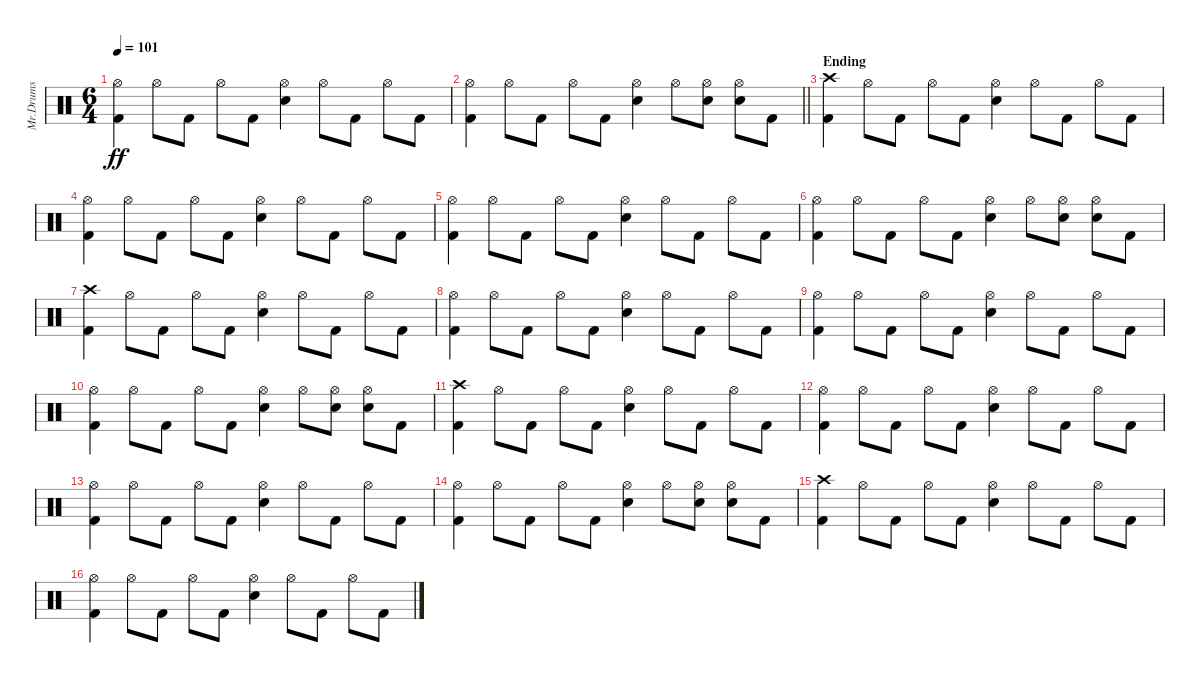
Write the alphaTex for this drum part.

\track ("Mr.Drums" "Mr.Drums") {instrument percussion}
\staff {score}
\articulation defaults
\ts (6 4)
\tempo 101
\clef neutral
\ks c
("Hi-Hat (open)" "Kick (hit) 2").4{dy ff} "Hi-Hat (open)".8 "Kick (hit) 2".8 "Hi-Hat (open)".8 "Kick (hit) 2".8 ("Hi-Hat (open)" "Electric Snare (hit)").4 "Hi-Hat (open)".8 "Kick (hit) 2".8 "Hi-Hat (open)".8 "Kick (hit) 2".8 |
\barLineRight lightlight
("Hi-Hat (open)" "Kick (hit) 2").4 "Hi-Hat (open)".8 "Kick (hit) 2".8 "Hi-Hat (open)".8 "Kick (hit) 2".8 ("Hi-Hat (open)" "Electric Snare (hit)").4 "Hi-Hat (open)".8 ("Hi-Hat (open)" "Electric Snare (hit)").8 ("Hi-Hat (open)" "Electric Snare (hit)").8 "Kick (hit) 2".8 |
\section ("" "Ending")
("Crash high (hit)" "Kick (hit) 2").4 "Hi-Hat (open)".8 "Kick (hit) 2".8 "Hi-Hat (open)".8 "Kick (hit) 2".8 ("Hi-Hat (open)" "Electric Snare (hit)").4 "Hi-Hat (open)".8 "Kick (hit) 2".8 "Hi-Hat (open)".8 "Kick (hit) 2".8 |
("Hi-Hat (open)" "Kick (hit) 2").4 "Hi-Hat (open)".8 "Kick (hit) 2".8 "Hi-Hat (open)".8 "Kick (hit) 2".8 ("Hi-Hat (open)" "Electric Snare (hit)").4 "Hi-Hat (open)".8 "Kick (hit) 2".8 "Hi-Hat (open)".8 "Kick (hit) 2".8 |
("Hi-Hat (open)" "Kick (hit) 2").4 "Hi-Hat (open)".8 "Kick (hit) 2".8 "Hi-Hat (open)".8 "Kick (hit) 2".8 ("Hi-Hat (open)" "Electric Snare (hit)").4 "Hi-Hat (open)".8 "Kick (hit) 2".8 "Hi-Hat (open)".8 "Kick (hit) 2".8 |
("Hi-Hat (open)" "Kick (hit) 2").4 "Hi-Hat (open)".8 "Kick (hit) 2".8 "Hi-Hat (open)".8 "Kick (hit) 2".8 ("Hi-Hat (open)" "Electric Snare (hit)").4 "Hi-Hat (open)".8 ("Hi-Hat (open)" "Electric Snare (hit)").8 ("Hi-Hat (open)" "Electric Snare (hit)").8 "Kick (hit) 2".8 |
("Crash high (hit)" "Kick (hit) 2").4 "Hi-Hat (open)".8 "Kick (hit) 2".8 "Hi-Hat (open)".8 "Kick (hit) 2".8 ("Hi-Hat (open)" "Electric Snare (hit)").4 "Hi-Hat (open)".8 "Kick (hit) 2".8 "Hi-Hat (open)".8 "Kick (hit) 2".8 |
("Hi-Hat (open)" "Kick (hit) 2").4 "Hi-Hat (open)".8 "Kick (hit) 2".8 "Hi-Hat (open)".8 "Kick (hit) 2".8 ("Hi-Hat (open)" "Electric Snare (hit)").4 "Hi-Hat (open)".8 "Kick (hit) 2".8 "Hi-Hat (open)".8 "Kick (hit) 2".8 |
("Hi-Hat (open)" "Kick (hit) 2").4 "Hi-Hat (open)".8 "Kick (hit) 2".8 "Hi-Hat (open)".8 "Kick (hit) 2".8 ("Hi-Hat (open)" "Electric Snare (hit)").4 "Hi-Hat (open)".8 "Kick (hit) 2".8 "Hi-Hat (open)".8 "Kick (hit) 2".8 |
("Hi-Hat (open)" "Kick (hit) 2").4 "Hi-Hat (open)".8 "Kick (hit) 2".8 "Hi-Hat (open)".8 "Kick (hit) 2".8 ("Hi-Hat (open)" "Electric Snare (hit)").4 "Hi-Hat (open)".8 ("Hi-Hat (open)" "Electric Snare (hit)").8 ("Hi-Hat (open)" "Electric Snare (hit)").8 "Kick (hit) 2".8 |
("Crash high (hit)" "Kick (hit) 2").4 "Hi-Hat (open)".8 "Kick (hit) 2".8 "Hi-Hat (open)".8 "Kick (hit) 2".8 ("Hi-Hat (open)" "Electric Snare (hit)").4 "Hi-Hat (open)".8 "Kick (hit) 2".8 "Hi-Hat (open)".8 "Kick (hit) 2".8 |
("Hi-Hat (open)" "Kick (hit) 2").4 "Hi-Hat (open)".8 "Kick (hit) 2".8 "Hi-Hat (open)".8 "Kick (hit) 2".8 ("Hi-Hat (open)" "Electric Snare (hit)").4 "Hi-Hat (open)".8 "Kick (hit) 2".8 "Hi-Hat (open)".8 "Kick (hit) 2".8 |
("Hi-Hat (open)" "Kick (hit) 2").4 "Hi-Hat (open)".8 "Kick (hit) 2".8 "Hi-Hat (open)".8 "Kick (hit) 2".8 ("Hi-Hat (open)" "Electric Snare (hit)").4 "Hi-Hat (open)".8 "Kick (hit) 2".8 "Hi-Hat (open)".8 "Kick (hit) 2".8 |
("Hi-Hat (open)" "Kick (hit) 2").4 "Hi-Hat (open)".8 "Kick (hit) 2".8 "Hi-Hat (open)".8 "Kick (hit) 2".8 ("Hi-Hat (open)" "Electric Snare (hit)").4 "Hi-Hat (open)".8 ("Hi-Hat (open)" "Electric Snare (hit)").8 ("Hi-Hat (open)" "Electric Snare (hit)").8 "Kick (hit) 2".8 |
("Crash high (hit)" "Kick (hit) 2").4 "Hi-Hat (open)".8 "Kick (hit) 2".8 "Hi-Hat (open)".8 "Kick (hit) 2".8 ("Hi-Hat (open)" "Electric Snare (hit)").4 "Hi-Hat (open)".8 "Kick (hit) 2".8 "Hi-Hat (open)".8 "Kick (hit) 2".8 |
("Hi-Hat (open)" "Kick (hit) 2").4 "Hi-Hat (open)".8 "Kick (hit) 2".8 "Hi-Hat (open)".8 "Kick (hit) 2".8 ("Hi-Hat (open)" "Electric Snare (hit)").4 "Hi-Hat (open)".8 "Kick (hit) 2".8 "Hi-Hat (open)".8 "Kick (hit) 2".8
